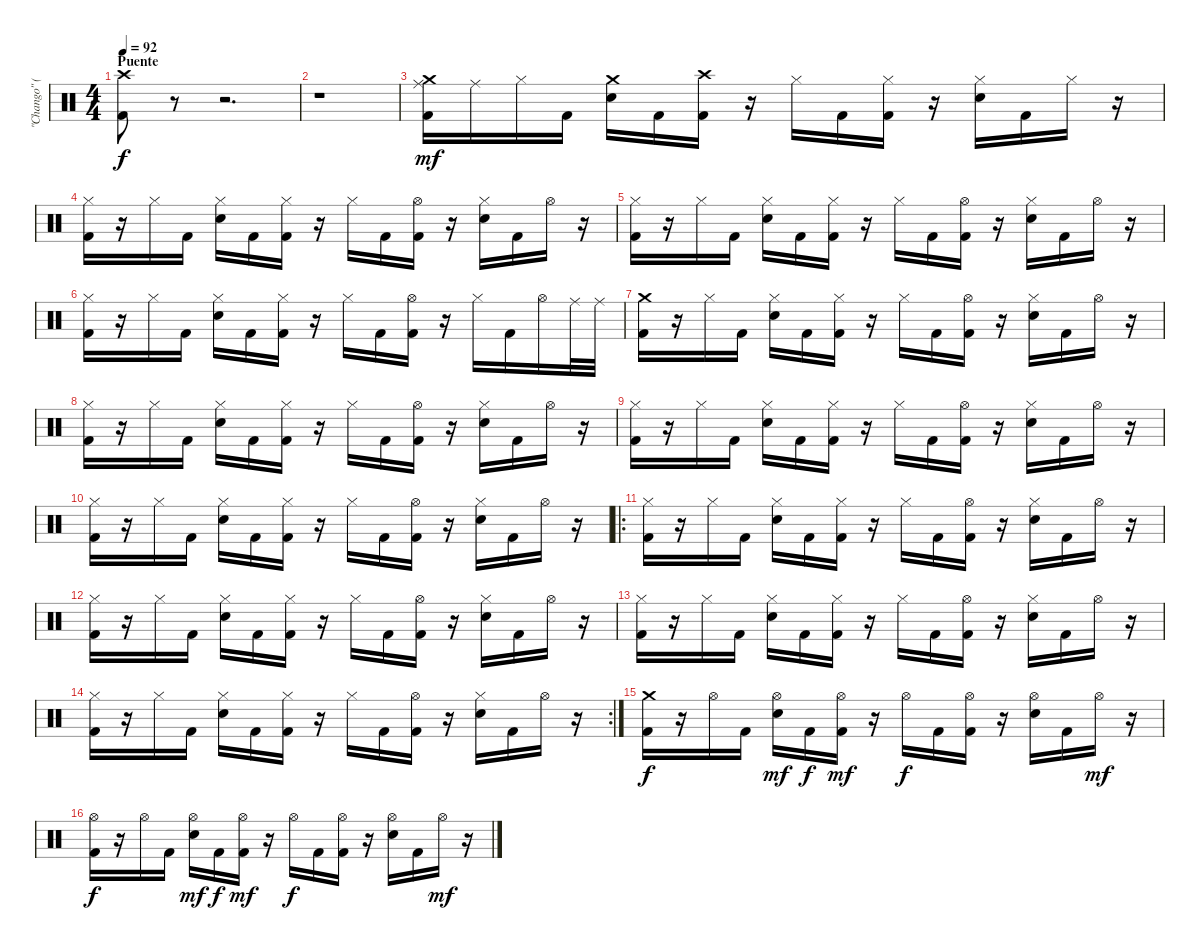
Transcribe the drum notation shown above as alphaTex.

\track ("\"Chango\" (Bateria)" "\"Chango\" (") {instrument percussion}
\staff {score}
\articulation defaults
\ts (4 4)
\section ("" "Puente")
\tempo 92
\clef neutral
\ks c
("Crash high (hit)" "Kick (hit) 2").8{dy f} r.8 r.2{d} |
r.1 |
("Crash medium (hit)" "Ride (middle)" "Kick (hit) 2").16{dy mf} "Ride (middle)".16 "Hi-Hat (closed)".16 "Kick (hit) 2".16 ("Crash medium (hit)" "Electric Snare (hit)").16 "Kick (hit) 2".16 ("Crash high (hit)" "Kick (hit) 2").16 r.16 "Hi-Hat (closed)".16 "Kick (hit) 2".16 ("Hi-Hat (closed)" "Kick (hit) 2").16 r.16 ("Hi-Hat (closed)" "Electric Snare (hit)").16 "Kick (hit) 2".16 "Hi-Hat (closed)".16 r.16 |
("Hi-Hat (closed)" "Kick (hit) 2").16 r.16 "Hi-Hat (closed)".16 "Kick (hit) 2".16 ("Hi-Hat (closed)" "Electric Snare (hit)").16 "Kick (hit) 2".16 ("Hi-Hat (closed)" "Kick (hit) 2").16 r.16 "Hi-Hat (closed)".16 "Kick (hit) 2".16 ("Hi-Hat (open)" "Kick (hit) 2").16 r.16 ("Hi-Hat (closed)" "Electric Snare (hit)").16 "Kick (hit) 2".16 "Hi-Hat (open)".16 r.16 |
("Hi-Hat (closed)" "Kick (hit) 2").16 r.16 "Hi-Hat (closed)".16 "Kick (hit) 2".16 ("Hi-Hat (closed)" "Electric Snare (hit)").16 "Kick (hit) 2".16 ("Hi-Hat (closed)" "Kick (hit) 2").16 r.16 "Hi-Hat (closed)".16 "Kick (hit) 2".16 ("Hi-Hat (open)" "Kick (hit) 2").16 r.16 ("Hi-Hat (closed)" "Electric Snare (hit)").16 "Kick (hit) 2".16 "Hi-Hat (open)".16 r.16 |
("Hi-Hat (closed)" "Kick (hit) 2").16 r.16 "Hi-Hat (closed)".16 "Kick (hit) 2".16 ("Hi-Hat (closed)" "Electric Snare (hit)").16 "Kick (hit) 2".16 ("Hi-Hat (closed)" "Kick (hit) 2").16 r.16 "Hi-Hat (closed)".16 "Kick (hit) 2".16 ("Hi-Hat (open)" "Kick (hit) 2").16 r.16 "Hi-Hat (closed)".16 "Kick (hit) 2".16 "Hi-Hat (open)".16 "Ride (middle)".32 "Ride (middle)".32 |
("Crash medium (hit)" "Kick (hit) 2").16 r.16 "Hi-Hat (closed)".16 "Kick (hit) 2".16 ("Hi-Hat (closed)" "Electric Snare (hit)").16 "Kick (hit) 2".16 ("Hi-Hat (closed)" "Kick (hit) 2").16 r.16 "Hi-Hat (closed)".16 "Kick (hit) 2".16 ("Hi-Hat (open)" "Kick (hit) 2").16 r.16 ("Hi-Hat (closed)" "Electric Snare (hit)").16 "Kick (hit) 2".16 "Hi-Hat (open)".16 r.16 |
("Hi-Hat (closed)" "Kick (hit) 2").16 r.16 "Hi-Hat (closed)".16 "Kick (hit) 2".16 ("Hi-Hat (closed)" "Electric Snare (hit)").16 "Kick (hit) 2".16 ("Hi-Hat (closed)" "Kick (hit) 2").16 r.16 "Hi-Hat (closed)".16 "Kick (hit) 2".16 ("Hi-Hat (open)" "Kick (hit) 2").16 r.16 ("Hi-Hat (closed)" "Electric Snare (hit)").16 "Kick (hit) 2".16 "Hi-Hat (open)".16 r.16 |
("Hi-Hat (closed)" "Kick (hit) 2").16 r.16 "Hi-Hat (closed)".16 "Kick (hit) 2".16 ("Hi-Hat (closed)" "Electric Snare (hit)").16 "Kick (hit) 2".16 ("Hi-Hat (closed)" "Kick (hit) 2").16 r.16 "Hi-Hat (closed)".16 "Kick (hit) 2".16 ("Hi-Hat (open)" "Kick (hit) 2").16 r.16 ("Hi-Hat (closed)" "Electric Snare (hit)").16 "Kick (hit) 2".16 "Hi-Hat (open)".16 r.16 |
("Hi-Hat (closed)" "Kick (hit) 2").16 r.16 "Hi-Hat (closed)".16 "Kick (hit) 2".16 ("Hi-Hat (closed)" "Electric Snare (hit)").16 "Kick (hit) 2".16 ("Hi-Hat (closed)" "Kick (hit) 2").16 r.16 "Hi-Hat (closed)".16 "Kick (hit) 2".16 ("Hi-Hat (open)" "Kick (hit) 2").16 r.16 ("Hi-Hat (closed)" "Electric Snare (hit)").16 "Kick (hit) 2".16 "Hi-Hat (open)".16 r.16 |
\ro
("Hi-Hat (closed)" "Kick (hit) 2").16 r.16 "Hi-Hat (closed)".16 "Kick (hit) 2".16 ("Hi-Hat (closed)" "Electric Snare (hit)").16 "Kick (hit) 2".16 ("Hi-Hat (closed)" "Kick (hit) 2").16 r.16 "Hi-Hat (closed)".16 "Kick (hit) 2".16 ("Hi-Hat (open)" "Kick (hit) 2").16 r.16 ("Hi-Hat (closed)" "Electric Snare (hit)").16 "Kick (hit) 2".16 "Hi-Hat (open)".16 r.16 |
("Hi-Hat (closed)" "Kick (hit) 2").16 r.16 "Hi-Hat (closed)".16 "Kick (hit) 2".16 ("Hi-Hat (closed)" "Electric Snare (hit)").16 "Kick (hit) 2".16 ("Hi-Hat (closed)" "Kick (hit) 2").16 r.16 "Hi-Hat (closed)".16 "Kick (hit) 2".16 ("Hi-Hat (open)" "Kick (hit) 2").16 r.16 ("Hi-Hat (closed)" "Electric Snare (hit)").16 "Kick (hit) 2".16 "Hi-Hat (open)".16 r.16 |
("Hi-Hat (closed)" "Kick (hit) 2").16 r.16 "Hi-Hat (closed)".16 "Kick (hit) 2".16 ("Hi-Hat (closed)" "Electric Snare (hit)").16 "Kick (hit) 2".16 ("Hi-Hat (closed)" "Kick (hit) 2").16 r.16 "Hi-Hat (closed)".16 "Kick (hit) 2".16 ("Hi-Hat (open)" "Kick (hit) 2").16 r.16 ("Hi-Hat (closed)" "Electric Snare (hit)").16 "Kick (hit) 2".16 "Hi-Hat (open)".16 r.16 |
\rc 2
("Hi-Hat (closed)" "Kick (hit) 2").16 r.16 "Hi-Hat (closed)".16 "Kick (hit) 2".16 ("Hi-Hat (closed)" "Electric Snare (hit)").16 "Kick (hit) 2".16 ("Hi-Hat (closed)" "Kick (hit) 2").16 r.16 "Hi-Hat (closed)".16 "Kick (hit) 2".16 ("Hi-Hat (open)" "Kick (hit) 2").16 r.16 ("Hi-Hat (closed)" "Electric Snare (hit)").16 "Kick (hit) 2".16 "Hi-Hat (open)".16 r.16 |
("Crash medium (hit)" "Kick (hit) 2").16{dy f} r.16 "Hi-Hat (open)".16 "Kick (hit) 2".16 ("Hi-Hat (open)" "Electric Snare (hit)").16{dy mf} "Kick (hit) 2".16{dy f} ("Hi-Hat (open)" "Kick (hit) 2").16{dy mf} r.16 "Hi-Hat (open)".16{dy f} "Kick (hit) 2".16 ("Hi-Hat (open)" "Kick (hit) 2").16 r.16 ("Hi-Hat (open)" "Electric Snare (hit)").16 "Kick (hit) 2".16 "Hi-Hat (open)".16{dy mf} r.16 |
("Hi-Hat (open)" "Kick (hit) 2").16{dy f} r.16 "Hi-Hat (open)".16 "Kick (hit) 2".16 ("Hi-Hat (open)" "Electric Snare (hit)").16{dy mf} "Kick (hit) 2".16{dy f} ("Hi-Hat (open)" "Kick (hit) 2").16{dy mf} r.16 "Hi-Hat (open)".16{dy f} "Kick (hit) 2".16 ("Hi-Hat (open)" "Kick (hit) 2").16 r.16 ("Hi-Hat (open)" "Electric Snare (hit)").16 "Kick (hit) 2".16 "Hi-Hat (open)".16{dy mf} r.16
